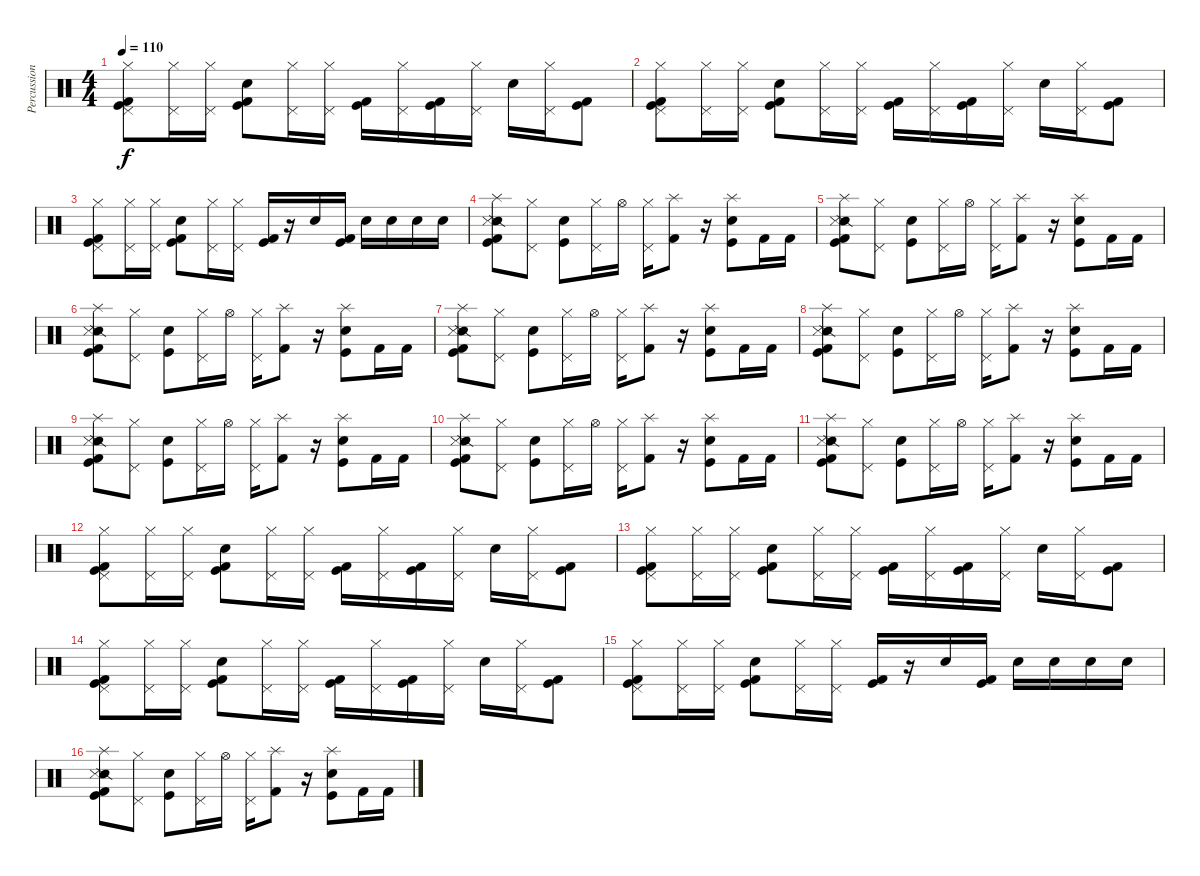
\track ("Percussion" "Percussion") {instrument percussion}
\staff {score}
\articulation defaults
\ts (4 4)
\tempo 110
\clef neutral
\ks c
("Kick (hit) 2" "Kick (hit)" "Pedal Hi-Hat (hit)" "Hi-Hat (closed)").8{dy f} ("Pedal Hi-Hat (hit)" "Hi-Hat (closed)").16 ("Pedal Hi-Hat (hit)" "Hi-Hat (closed)").16 ("Snare (hit) 2" "Kick (hit) 2" "Kick (hit)").8 ("Pedal Hi-Hat (hit)" "Hi-Hat (closed)").16 ("Pedal Hi-Hat (hit)" "Hi-Hat (closed)").16 ("Kick (hit) 2" "Kick (hit)").16 ("Pedal Hi-Hat (hit)" "Hi-Hat (closed)").16 ("Kick (hit) 2" "Kick (hit)").16 ("Pedal Hi-Hat (hit)" "Hi-Hat (closed)").16 "Snare (hit) 2".16 ("Pedal Hi-Hat (hit)" "Hi-Hat (closed)").16 ("Kick (hit) 2" "Kick (hit)").8 |
("Kick (hit) 2" "Kick (hit)" "Pedal Hi-Hat (hit)" "Hi-Hat (closed)").8 ("Pedal Hi-Hat (hit)" "Hi-Hat (closed)").16 ("Pedal Hi-Hat (hit)" "Hi-Hat (closed)").16 ("Snare (hit) 2" "Kick (hit) 2" "Kick (hit)").8 ("Pedal Hi-Hat (hit)" "Hi-Hat (closed)").16 ("Pedal Hi-Hat (hit)" "Hi-Hat (closed)").16 ("Kick (hit) 2" "Kick (hit)").16 ("Pedal Hi-Hat (hit)" "Hi-Hat (closed)").16 ("Kick (hit) 2" "Kick (hit)").16 ("Pedal Hi-Hat (hit)" "Hi-Hat (closed)").16 "Snare (hit) 2".16 ("Pedal Hi-Hat (hit)" "Hi-Hat (closed)").16 ("Kick (hit) 2" "Kick (hit)").8 |
("Kick (hit) 2" "Kick (hit)" "Pedal Hi-Hat (hit)" "Hi-Hat (closed)").8 ("Pedal Hi-Hat (hit)" "Hi-Hat (closed)").16 ("Pedal Hi-Hat (hit)" "Hi-Hat (closed)").16 ("Snare (hit) 2" "Kick (hit) 2" "Kick (hit)").8 ("Pedal Hi-Hat (hit)" "Hi-Hat (closed)").16 ("Pedal Hi-Hat (hit)" "Hi-Hat (closed)").16 ("Kick (hit) 2" "Kick (hit)").16 r.16 "Snare (hit) 2".16 ("Kick (hit)" "Kick (hit) 2").16 "Snare (hit) 2".16 "Snare (hit) 2".16 "Electric Snare (hit)".16 "Snare (hit) 2".16 |
("Kick (hit)" "Kick (hit) 2" "Snare (side stick) 2" "Metronome (hit)" "Splash (hit)").8 ("Pedal Hi-Hat (hit)" "Hi-Hat (closed)").8 ("Snare (hit) 2" "Kick (hit)").8 ("Pedal Hi-Hat (hit)" "Hi-Hat (closed)").16 "Hi-Hat (open)".16 ("Pedal Hi-Hat (hit)" "Hi-Hat (closed)").16 ("Kick (hit) 2" "Splash (hit)").8 r.16 ("Snare (hit) 2" "Kick (hit)" "Splash (hit)").8 "Kick (hit) 2".16 "Kick (hit) 2".16 |
("Kick (hit)" "Kick (hit) 2" "Snare (side stick) 2" "Metronome (hit)" "Splash (hit)").8 ("Pedal Hi-Hat (hit)" "Hi-Hat (closed)").8 ("Snare (hit) 2" "Kick (hit)").8 ("Pedal Hi-Hat (hit)" "Hi-Hat (closed)").16 "Hi-Hat (open)".16 ("Pedal Hi-Hat (hit)" "Hi-Hat (closed)").16 ("Kick (hit) 2" "Splash (hit)").8 r.16 ("Snare (hit) 2" "Kick (hit)" "Splash (hit)").8 "Kick (hit) 2".16 "Kick (hit) 2".16 |
("Kick (hit)" "Kick (hit) 2" "Snare (side stick) 2" "Metronome (hit)" "Splash (hit)").8 ("Pedal Hi-Hat (hit)" "Hi-Hat (closed)").8 ("Snare (hit) 2" "Kick (hit)").8 ("Pedal Hi-Hat (hit)" "Hi-Hat (closed)").16 "Hi-Hat (open)".16 ("Pedal Hi-Hat (hit)" "Hi-Hat (closed)").16 ("Kick (hit) 2" "Splash (hit)").8 r.16 ("Snare (hit) 2" "Kick (hit)" "Splash (hit)").8 "Kick (hit) 2".16 "Kick (hit) 2".16 |
("Kick (hit)" "Kick (hit) 2" "Snare (side stick) 2" "Metronome (hit)" "Splash (hit)").8 ("Pedal Hi-Hat (hit)" "Hi-Hat (closed)").8 ("Snare (hit) 2" "Kick (hit)").8 ("Pedal Hi-Hat (hit)" "Hi-Hat (closed)").16 "Hi-Hat (open)".16 ("Pedal Hi-Hat (hit)" "Hi-Hat (closed)").16 ("Kick (hit) 2" "Splash (hit)").8 r.16 ("Snare (hit) 2" "Kick (hit)" "Splash (hit)").8 "Kick (hit) 2".16 "Kick (hit) 2".16 |
("Kick (hit)" "Kick (hit) 2" "Snare (side stick) 2" "Metronome (hit)" "Splash (hit)").8 ("Pedal Hi-Hat (hit)" "Hi-Hat (closed)").8 ("Snare (hit) 2" "Kick (hit)").8 ("Pedal Hi-Hat (hit)" "Hi-Hat (closed)").16 "Hi-Hat (open)".16 ("Pedal Hi-Hat (hit)" "Hi-Hat (closed)").16 ("Kick (hit) 2" "Splash (hit)").8 r.16 ("Snare (hit) 2" "Kick (hit)" "Splash (hit)").8 "Kick (hit) 2".16 "Kick (hit) 2".16 |
("Kick (hit)" "Kick (hit) 2" "Snare (side stick) 2" "Metronome (hit)" "Splash (hit)").8 ("Pedal Hi-Hat (hit)" "Hi-Hat (closed)").8 ("Snare (hit) 2" "Kick (hit)").8 ("Pedal Hi-Hat (hit)" "Hi-Hat (closed)").16 "Hi-Hat (open)".16 ("Pedal Hi-Hat (hit)" "Hi-Hat (closed)").16 ("Kick (hit) 2" "Splash (hit)").8 r.16 ("Snare (hit) 2" "Kick (hit)" "Splash (hit)").8 "Kick (hit) 2".16 "Kick (hit) 2".16 |
("Kick (hit)" "Kick (hit) 2" "Snare (side stick) 2" "Metronome (hit)" "Splash (hit)").8 ("Pedal Hi-Hat (hit)" "Hi-Hat (closed)").8 ("Snare (hit) 2" "Kick (hit)").8 ("Pedal Hi-Hat (hit)" "Hi-Hat (closed)").16 "Hi-Hat (open)".16 ("Pedal Hi-Hat (hit)" "Hi-Hat (closed)").16 ("Kick (hit) 2" "Splash (hit)").8 r.16 ("Snare (hit) 2" "Kick (hit)" "Splash (hit)").8 "Kick (hit) 2".16 "Kick (hit) 2".16 |
("Kick (hit)" "Kick (hit) 2" "Snare (side stick) 2" "Metronome (hit)" "Splash (hit)").8 ("Pedal Hi-Hat (hit)" "Hi-Hat (closed)").8 ("Snare (hit) 2" "Kick (hit)").8 ("Pedal Hi-Hat (hit)" "Hi-Hat (closed)").16 "Hi-Hat (open)".16 ("Pedal Hi-Hat (hit)" "Hi-Hat (closed)").16 ("Kick (hit) 2" "Splash (hit)").8 r.16 ("Snare (hit) 2" "Kick (hit)" "Splash (hit)").8 "Kick (hit) 2".16 "Kick (hit) 2".16 |
("Kick (hit) 2" "Kick (hit)" "Pedal Hi-Hat (hit)" "Hi-Hat (closed)").8 ("Pedal Hi-Hat (hit)" "Hi-Hat (closed)").16 ("Pedal Hi-Hat (hit)" "Hi-Hat (closed)").16 ("Snare (hit) 2" "Kick (hit) 2" "Kick (hit)").8 ("Pedal Hi-Hat (hit)" "Hi-Hat (closed)").16 ("Pedal Hi-Hat (hit)" "Hi-Hat (closed)").16 ("Kick (hit) 2" "Kick (hit)").16 ("Pedal Hi-Hat (hit)" "Hi-Hat (closed)").16 ("Kick (hit) 2" "Kick (hit)").16 ("Pedal Hi-Hat (hit)" "Hi-Hat (closed)").16 "Snare (hit) 2".16 ("Pedal Hi-Hat (hit)" "Hi-Hat (closed)").16 ("Kick (hit) 2" "Kick (hit)").8 |
("Kick (hit) 2" "Kick (hit)" "Pedal Hi-Hat (hit)" "Hi-Hat (closed)").8 ("Pedal Hi-Hat (hit)" "Hi-Hat (closed)").16 ("Pedal Hi-Hat (hit)" "Hi-Hat (closed)").16 ("Snare (hit) 2" "Kick (hit) 2" "Kick (hit)").8 ("Pedal Hi-Hat (hit)" "Hi-Hat (closed)").16 ("Pedal Hi-Hat (hit)" "Hi-Hat (closed)").16 ("Kick (hit) 2" "Kick (hit)").16 ("Pedal Hi-Hat (hit)" "Hi-Hat (closed)").16 ("Kick (hit) 2" "Kick (hit)").16 ("Pedal Hi-Hat (hit)" "Hi-Hat (closed)").16 "Snare (hit) 2".16 ("Pedal Hi-Hat (hit)" "Hi-Hat (closed)").16 ("Kick (hit) 2" "Kick (hit)").8 |
("Kick (hit) 2" "Kick (hit)" "Pedal Hi-Hat (hit)" "Hi-Hat (closed)").8 ("Pedal Hi-Hat (hit)" "Hi-Hat (closed)").16 ("Pedal Hi-Hat (hit)" "Hi-Hat (closed)").16 ("Snare (hit) 2" "Kick (hit) 2" "Kick (hit)").8 ("Pedal Hi-Hat (hit)" "Hi-Hat (closed)").16 ("Pedal Hi-Hat (hit)" "Hi-Hat (closed)").16 ("Kick (hit) 2" "Kick (hit)").16 ("Pedal Hi-Hat (hit)" "Hi-Hat (closed)").16 ("Kick (hit) 2" "Kick (hit)").16 ("Pedal Hi-Hat (hit)" "Hi-Hat (closed)").16 "Snare (hit) 2".16 ("Pedal Hi-Hat (hit)" "Hi-Hat (closed)").16 ("Kick (hit) 2" "Kick (hit)").8 |
("Kick (hit) 2" "Kick (hit)" "Pedal Hi-Hat (hit)" "Hi-Hat (closed)").8 ("Pedal Hi-Hat (hit)" "Hi-Hat (closed)").16 ("Pedal Hi-Hat (hit)" "Hi-Hat (closed)").16 ("Snare (hit) 2" "Kick (hit) 2" "Kick (hit)").8 ("Pedal Hi-Hat (hit)" "Hi-Hat (closed)").16 ("Pedal Hi-Hat (hit)" "Hi-Hat (closed)").16 ("Kick (hit) 2" "Kick (hit)").16 r.16 "Snare (hit) 2".16 ("Kick (hit)" "Kick (hit) 2").16 "Snare (hit) 2".16 "Snare (hit) 2".16 "Electric Snare (hit)".16 "Snare (hit) 2".16 |
("Kick (hit)" "Kick (hit) 2" "Snare (side stick) 2" "Metronome (hit)" "Splash (hit)").8 ("Pedal Hi-Hat (hit)" "Hi-Hat (closed)").8 ("Snare (hit) 2" "Kick (hit)").8 ("Pedal Hi-Hat (hit)" "Hi-Hat (closed)").16 "Hi-Hat (open)".16 ("Pedal Hi-Hat (hit)" "Hi-Hat (closed)").16 ("Kick (hit) 2" "Splash (hit)").8 r.16 ("Snare (hit) 2" "Kick (hit)" "Splash (hit)").8 "Kick (hit) 2".16 "Kick (hit) 2".16
